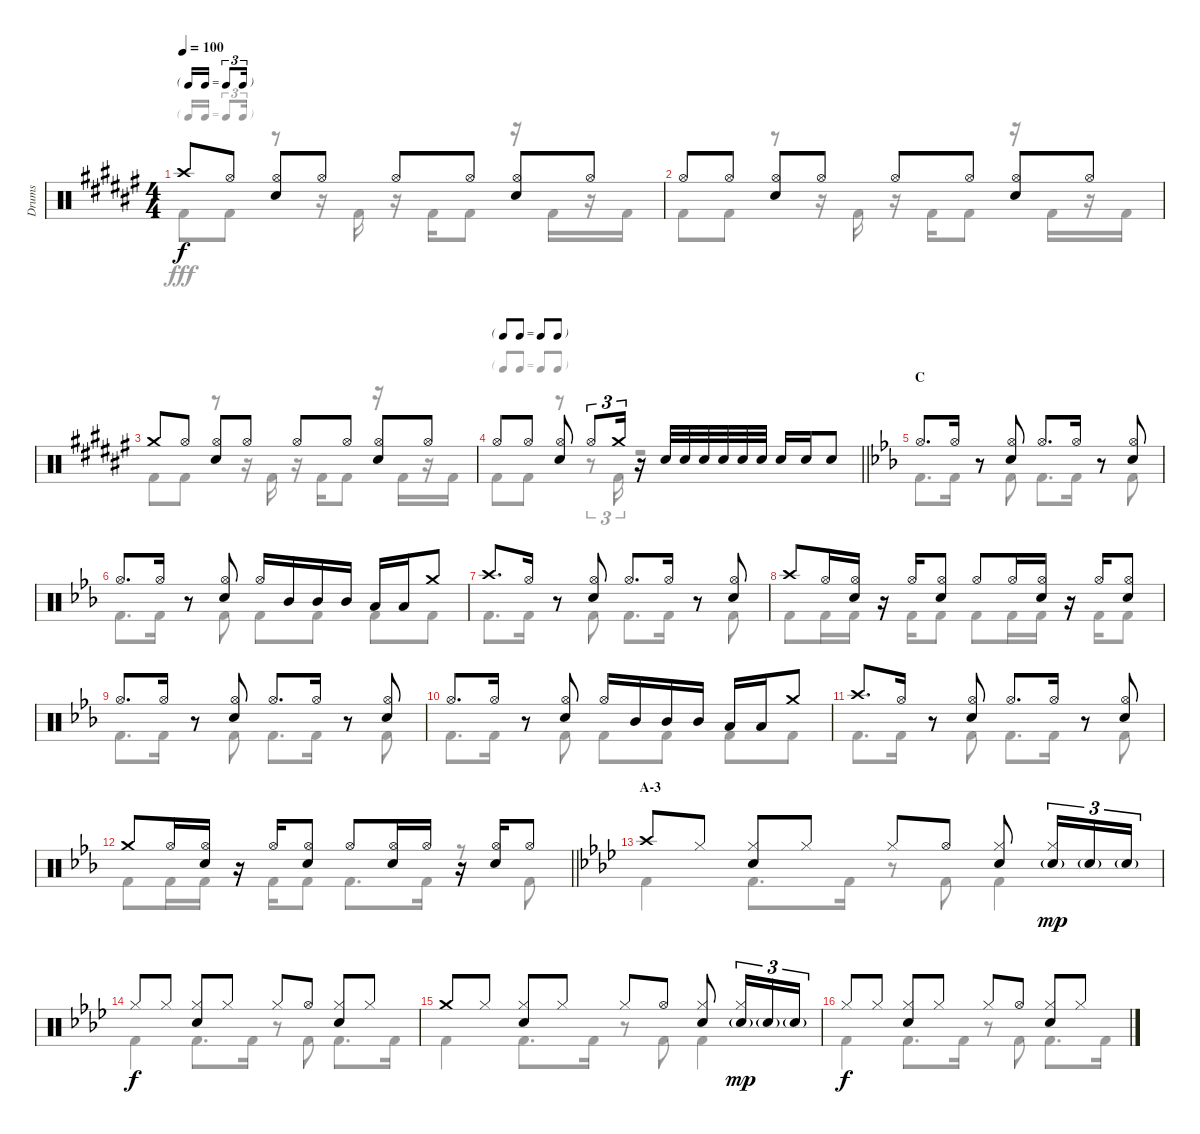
\track ("Drums" "Drums") {instrument percussion}
\staff {score}
\articulation defaults
\voice
\ts (4 4)
\tf triplet16th
\tempo 100
\clef neutral
\ks f# "Crash high (hit)".8{dy f} "Hi-Hat (open)".8
("Hi-Hat (open)" "Snare (hit) 2").8 "Hi-Hat (open)".8 "Hi-Hat (open)".8 "Hi-Hat (open)".8 ("Hi-Hat (open)" "Snare (hit) 2").8 "Hi-Hat (open)".8 |
"Hi-Hat (open)".8 "Hi-Hat (open)".8 ("Hi-Hat (open)" "Snare (hit) 2").8 "Hi-Hat (open)".8 "Hi-Hat (open)".8 "Hi-Hat (open)".8 ("Hi-Hat (open)" "Snare (hit) 2").8 "Hi-Hat (open)".8 |
"Crash medium (hit)".8 "Hi-Hat (open)".8 ("Hi-Hat (open)" "Snare (hit) 2").8 "Hi-Hat (open)".8 "Hi-Hat (open)".8 "Hi-Hat (open)".8 ("Hi-Hat (open)" "Snare (hit) 2").8 "Hi-Hat (open)".8 |
\tf none
\barLineRight lightlight "Hi-Hat (open)".8 "Hi-Hat (open)".8
("Hi-Hat (open)" "Snare (hit) 2").8 "Hi-Hat (open)".8{tu (3 2)} "Crash medium (hit)".16{tu (3 2)} r.16 "Snare (hit) 2".32 "Snare (hit) 2".32 "Snare (hit) 2".32 "Snare (hit) 2".32 "Snare (hit) 2".32 "Snare (hit) 2".32 "Snare (hit) 2".16 "Snare (hit) 2".16 "Snare (hit) 2".8 |
\section ("" "C")
\ks eb "Hi-Hat (open)".8{d} "Hi-Hat (open)".16
r.8 ("Hi-Hat (open)" "Snare (hit) 2").8 "Hi-Hat (open)".8{d} "Hi-Hat (open)".16 r.8 ("Hi-Hat (open)" "Snare (hit) 2").8 |
"Hi-Hat (open)".8{d} "Hi-Hat (open)".16 r.8 ("Hi-Hat (open)" "Snare (hit) 2").8 "Hi-Hat (open)".16 "Mid Tom (hit)".16 "Mid Tom (hit)".16 "Mid Tom (hit)".16 "Low Tom (hit)".16 "Low Tom (hit)".16 "Crash medium (hit)".8 |
"Crash high (hit)".8{d} "Hi-Hat (open)".16 r.8 ("Hi-Hat (open)" "Snare (hit) 2").8 "Hi-Hat (open)".8{d} "Hi-Hat (open)".16 r.8 ("Hi-Hat (open)" "Snare (hit) 2").8 |
"Crash high (hit)".8 "Hi-Hat (open)".16 ("Hi-Hat (open)" "Snare (hit) 2").16 r.16 "Hi-Hat (open)".16 ("Hi-Hat (open)" "Snare (hit) 2").8 "Hi-Hat (open)".8 "Hi-Hat (open)".16 ("Hi-Hat (open)" "Snare (hit) 2").16 r.16 "Hi-Hat (open)".16 ("Hi-Hat (open)" "Snare (hit) 2").8 |
"Hi-Hat (open)".8{d} "Hi-Hat (open)".16 r.8 ("Hi-Hat (open)" "Snare (hit) 2").8 "Hi-Hat (open)".8{d} "Hi-Hat (open)".16 r.8 ("Hi-Hat (open)" "Snare (hit) 2").8 |
"Hi-Hat (open)".8{d} "Hi-Hat (open)".16 r.8 ("Hi-Hat (open)" "Snare (hit) 2").8 "Hi-Hat (open)".16 "Mid Tom (hit)".16 "Mid Tom (hit)".16 "Mid Tom (hit)".16 "Low Tom (hit)".16 "Low Tom (hit)".16 "Crash medium (hit)".8 |
"Crash high (hit)".8{d} "Hi-Hat (open)".16 r.8 ("Hi-Hat (open)" "Snare (hit) 2").8 "Hi-Hat (open)".8{d} "Hi-Hat (open)".16 r.8 ("Hi-Hat (open)" "Snare (hit) 2").8 |
\barLineRight lightlight "Crash medium (hit)".8 "Hi-Hat (open)".16
("Hi-Hat (open)" "Snare (hit) 2").16 r.16 "Hi-Hat (open)".16 ("Hi-Hat (open)" "Snare (hit) 2").8 "Hi-Hat (open)".8 ("Hi-Hat (open)" "Snare (hit) 2").16 "Hi-Hat (open)".16 r.16 ("Hi-Hat (open)" "Snare (hit) 2").16 "Hi-Hat (open)".8 |
\section ("" "A-3")
\ks fminor "Crash high (hit)".8 "Hi-Hat (closed)".8
("Hi-Hat (closed)" "Snare (hit) 2").8 "Hi-Hat (closed)".8 "Hi-Hat (closed)".8 "Hi-Hat (open)".8 ("Hi-Hat (closed)" "Snare (hit) 2").8 ("Hi-Hat (closed)" "Snare (hit) 2"{g}).16{tu (3 2) dy mp} "Snare (hit) 2"{g}.16{tu (3 2)} "Snare (hit) 2"{g}.16{tu (3 2)} |
"Hi-Hat (closed)".8{dy f} "Hi-Hat (closed)".8 ("Hi-Hat (closed)" "Snare (hit) 2").8 "Hi-Hat (closed)".8 "Hi-Hat (closed)".8 "Hi-Hat (open)".8 ("Hi-Hat (closed)" "Snare (hit) 2").8 "Hi-Hat (closed)".8 |
"Crash medium (hit)".8 "Hi-Hat (closed)".8 ("Hi-Hat (closed)" "Snare (hit) 2").8 "Hi-Hat (closed)".8 "Hi-Hat (closed)".8 "Hi-Hat (open)".8 ("Hi-Hat (closed)" "Snare (hit) 2").8 ("Hi-Hat (closed)" "Snare (hit) 2"{g}).16{tu (3 2) dy mp} "Snare (hit) 2"{g}.16{tu (3 2)} "Snare (hit) 2"{g}.16{tu (3 2)} |
"Hi-Hat (closed)".8{dy f} "Hi-Hat (closed)".8 ("Hi-Hat (closed)" "Snare (hit) 2").8 "Hi-Hat (closed)".8 "Hi-Hat (closed)".8 "Hi-Hat (open)".8 ("Hi-Hat (closed)" "Snare (hit) 2").8 "Hi-Hat (closed)".8
\voice
\clef neutral
\ottava regular
\simile none
\ks f# "Kick (hit) 2".8{dy fff} "Kick (hit) 2".8
r.8 r.16 "Kick (hit) 2".16 r.16 "Kick (hit) 2".16 "Kick (hit) 2".8 r.16 "Kick (hit) 2".16 r.16 "Kick (hit) 2".16 |
"Kick (hit) 2".8 "Kick (hit) 2".8 r.8 r.16 "Kick (hit) 2".16 r.16 "Kick (hit) 2".16 "Kick (hit) 2".8 r.16 "Kick (hit) 2".16 r.16 "Kick (hit) 2".16 |
"Kick (hit) 2".8 "Kick (hit) 2".8 r.8 r.16 "Kick (hit) 2".16 r.16 "Kick (hit) 2".16 "Kick (hit) 2".8 r.16 "Kick (hit) 2".16 r.16 "Kick (hit) 2".16 |
\barLineRight lightlight "Kick (hit) 2".8 "Kick (hit) 2".8
r.8 r.8{tu (3 2)} "Kick (hit) 2".16{tu (3 2)} r.2 |
\ks eb "Kick (hit) 2".8{d} "Kick (hit) 2".16
r.8 "Kick (hit) 2".8 "Kick (hit) 2".8{d} "Kick (hit) 2".16 r.8 "Kick (hit) 2".8 |
"Kick (hit) 2".8{d} "Kick (hit) 2".16 r.8 "Kick (hit) 2".8 "Kick (hit) 2".8 "Kick (hit) 2".8 "Kick (hit) 2".8 "Kick (hit) 2".8 |
"Kick (hit) 2".8{d} "Kick (hit) 2".16 r.8 "Kick (hit) 2".8 "Kick (hit) 2".8{d} "Kick (hit) 2".16 r.8 "Kick (hit) 2".8 |
"Kick (hit) 2".8 "Kick (hit) 2".16 "Kick (hit) 2".16 r.16 "Kick (hit) 2".16 "Kick (hit) 2".8 "Kick (hit) 2".8 "Kick (hit) 2".16 "Kick (hit) 2".16 r.16 "Kick (hit) 2".16 "Kick (hit) 2".8 |
"Kick (hit) 2".8{d} "Kick (hit) 2".16 r.8 "Kick (hit) 2".8 "Kick (hit) 2".8{d} "Kick (hit) 2".16 r.8 "Kick (hit) 2".8 |
"Kick (hit) 2".8{d} "Kick (hit) 2".16 r.8 "Kick (hit) 2".8 "Kick (hit) 2".8 "Kick (hit) 2".8 "Kick (hit) 2".8 "Kick (hit) 2".8 |
"Kick (hit) 2".8{d} "Kick (hit) 2".16 r.8 "Kick (hit) 2".8 "Kick (hit) 2".8{d} "Kick (hit) 2".16 r.8 "Kick (hit) 2".8 |
\barLineRight lightlight "Kick (hit) 2".8 "Kick (hit) 2".16 "Kick (hit) 2".16
r.16 "Kick (hit) 2".16 "Kick (hit) 2".8 "Kick (hit) 2".8{d} "Kick (hit) 2".16 r.8 "Kick (hit) 2".8 |
\ks fminor "Kick (hit) 2".4 "Kick (hit) 2".8{d} "Kick (hit) 2".16
r.8 "Kick (hit) 2".8 "Kick (hit) 2".4 |
"Kick (hit) 2".4 "Kick (hit) 2".8{d} "Kick (hit) 2".16 r.8 "Kick (hit) 2".8 "Kick (hit) 2".8{d} "Kick (hit) 2".16 |
"Kick (hit) 2".4 "Kick (hit) 2".8{d} "Kick (hit) 2".16 r.8 "Kick (hit) 2".8 "Kick (hit) 2".4 |
"Kick (hit) 2".4 "Kick (hit) 2".8{d} "Kick (hit) 2".16 r.8 "Kick (hit) 2".8 "Kick (hit) 2".8{d} "Kick (hit) 2".16
